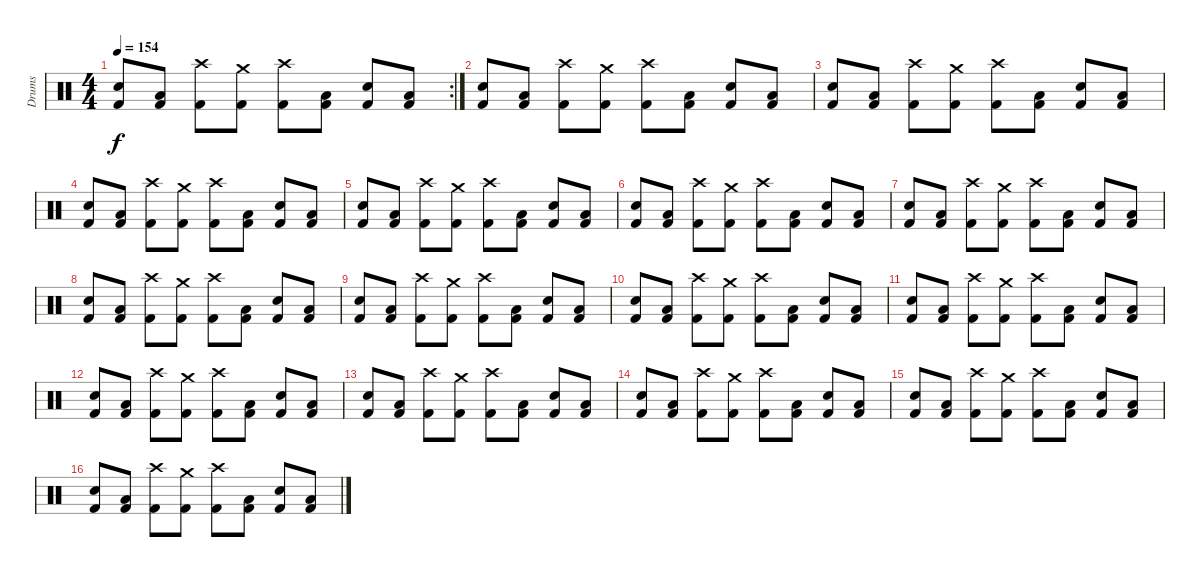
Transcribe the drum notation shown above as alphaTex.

\track ("Drums" "Drums") {instrument percussion}
\staff {score}
\articulation defaults
\rc 2
\ts (4 4)
\tempo 154
\clef neutral
\ks c
("Kick (hit) 2" "Snare (hit) 2").8{dy f} ("Kick (hit) 2" "Low Tom (hit)").8 ("Kick (hit) 2" "Crash high (hit)").8 ("Kick (hit) 2" "Crash medium (hit)").8 ("Kick (hit) 2" "Crash high (hit)").8 ("Kick (hit) 2" "Low Tom (hit)").8 ("Kick (hit) 2" "Snare (hit) 2").8 ("Kick (hit) 2" "Low Tom (hit)").8 |
("Kick (hit) 2" "Snare (hit) 2").8 ("Kick (hit) 2" "Low Tom (hit)").8 ("Kick (hit) 2" "Crash high (hit)").8 ("Kick (hit) 2" "Crash medium (hit)").8 ("Kick (hit) 2" "Crash high (hit)").8 ("Kick (hit) 2" "Low Tom (hit)").8 ("Kick (hit) 2" "Snare (hit) 2").8 ("Kick (hit) 2" "Low Tom (hit)").8 |
("Kick (hit) 2" "Snare (hit) 2").8 ("Kick (hit) 2" "Low Tom (hit)").8 ("Kick (hit) 2" "Crash high (hit)").8 ("Kick (hit) 2" "Crash medium (hit)").8 ("Kick (hit) 2" "Crash high (hit)").8 ("Kick (hit) 2" "Low Tom (hit)").8 ("Kick (hit) 2" "Snare (hit) 2").8 ("Kick (hit) 2" "Low Tom (hit)").8 |
("Kick (hit) 2" "Snare (hit) 2").8 ("Kick (hit) 2" "Low Tom (hit)").8 ("Kick (hit) 2" "Crash high (hit)").8 ("Kick (hit) 2" "Crash medium (hit)").8 ("Kick (hit) 2" "Crash high (hit)").8 ("Kick (hit) 2" "Low Tom (hit)").8 ("Kick (hit) 2" "Snare (hit) 2").8 ("Kick (hit) 2" "Low Tom (hit)").8 |
("Kick (hit) 2" "Snare (hit) 2").8 ("Kick (hit) 2" "Low Tom (hit)").8 ("Kick (hit) 2" "Crash high (hit)").8 ("Kick (hit) 2" "Crash medium (hit)").8 ("Kick (hit) 2" "Crash high (hit)").8 ("Kick (hit) 2" "Low Tom (hit)").8 ("Kick (hit) 2" "Snare (hit) 2").8 ("Kick (hit) 2" "Low Tom (hit)").8 |
("Kick (hit) 2" "Snare (hit) 2").8 ("Kick (hit) 2" "Low Tom (hit)").8 ("Kick (hit) 2" "Crash high (hit)").8 ("Kick (hit) 2" "Crash medium (hit)").8 ("Kick (hit) 2" "Crash high (hit)").8 ("Kick (hit) 2" "Low Tom (hit)").8 ("Kick (hit) 2" "Snare (hit) 2").8 ("Kick (hit) 2" "Low Tom (hit)").8 |
("Kick (hit) 2" "Snare (hit) 2").8 ("Kick (hit) 2" "Low Tom (hit)").8 ("Kick (hit) 2" "Crash high (hit)").8 ("Kick (hit) 2" "Crash medium (hit)").8 ("Kick (hit) 2" "Crash high (hit)").8 ("Kick (hit) 2" "Low Tom (hit)").8 ("Kick (hit) 2" "Snare (hit) 2").8 ("Kick (hit) 2" "Low Tom (hit)").8 |
("Kick (hit) 2" "Snare (hit) 2").8 ("Kick (hit) 2" "Low Tom (hit)").8 ("Kick (hit) 2" "Crash high (hit)").8 ("Kick (hit) 2" "Crash medium (hit)").8 ("Kick (hit) 2" "Crash high (hit)").8 ("Kick (hit) 2" "Low Tom (hit)").8 ("Kick (hit) 2" "Snare (hit) 2").8 ("Kick (hit) 2" "Low Tom (hit)").8 |
("Kick (hit) 2" "Snare (hit) 2").8 ("Kick (hit) 2" "Low Tom (hit)").8 ("Kick (hit) 2" "Crash high (hit)").8 ("Kick (hit) 2" "Crash medium (hit)").8 ("Kick (hit) 2" "Crash high (hit)").8 ("Kick (hit) 2" "Low Tom (hit)").8 ("Kick (hit) 2" "Snare (hit) 2").8 ("Kick (hit) 2" "Low Tom (hit)").8 |
("Kick (hit) 2" "Snare (hit) 2").8 ("Kick (hit) 2" "Low Tom (hit)").8 ("Kick (hit) 2" "Crash high (hit)").8 ("Kick (hit) 2" "Crash medium (hit)").8 ("Kick (hit) 2" "Crash high (hit)").8 ("Kick (hit) 2" "Low Tom (hit)").8 ("Kick (hit) 2" "Snare (hit) 2").8 ("Kick (hit) 2" "Low Tom (hit)").8 |
("Kick (hit) 2" "Snare (hit) 2").8 ("Kick (hit) 2" "Low Tom (hit)").8 ("Kick (hit) 2" "Crash high (hit)").8 ("Kick (hit) 2" "Crash medium (hit)").8 ("Kick (hit) 2" "Crash high (hit)").8 ("Kick (hit) 2" "Low Tom (hit)").8 ("Kick (hit) 2" "Snare (hit) 2").8 ("Kick (hit) 2" "Low Tom (hit)").8 |
("Kick (hit) 2" "Snare (hit) 2").8 ("Kick (hit) 2" "Low Tom (hit)").8 ("Kick (hit) 2" "Crash high (hit)").8 ("Kick (hit) 2" "Crash medium (hit)").8 ("Kick (hit) 2" "Crash high (hit)").8 ("Kick (hit) 2" "Low Tom (hit)").8 ("Kick (hit) 2" "Snare (hit) 2").8 ("Kick (hit) 2" "Low Tom (hit)").8 |
("Kick (hit) 2" "Snare (hit) 2").8 ("Kick (hit) 2" "Low Tom (hit)").8 ("Kick (hit) 2" "Crash high (hit)").8 ("Kick (hit) 2" "Crash medium (hit)").8 ("Kick (hit) 2" "Crash high (hit)").8 ("Kick (hit) 2" "Low Tom (hit)").8 ("Kick (hit) 2" "Snare (hit) 2").8 ("Kick (hit) 2" "Low Tom (hit)").8 |
("Kick (hit) 2" "Snare (hit) 2").8 ("Kick (hit) 2" "Low Tom (hit)").8 ("Kick (hit) 2" "Crash high (hit)").8 ("Kick (hit) 2" "Crash medium (hit)").8 ("Kick (hit) 2" "Crash high (hit)").8 ("Kick (hit) 2" "Low Tom (hit)").8 ("Kick (hit) 2" "Snare (hit) 2").8 ("Kick (hit) 2" "Low Tom (hit)").8 |
("Kick (hit) 2" "Snare (hit) 2").8 ("Kick (hit) 2" "Low Tom (hit)").8 ("Kick (hit) 2" "Crash high (hit)").8 ("Kick (hit) 2" "Crash medium (hit)").8 ("Kick (hit) 2" "Crash high (hit)").8 ("Kick (hit) 2" "Low Tom (hit)").8 ("Kick (hit) 2" "Snare (hit) 2").8 ("Kick (hit) 2" "Low Tom (hit)").8 |
("Kick (hit) 2" "Snare (hit) 2").8 ("Kick (hit) 2" "Low Tom (hit)").8 ("Kick (hit) 2" "Crash high (hit)").8 ("Kick (hit) 2" "Crash medium (hit)").8 ("Kick (hit) 2" "Crash high (hit)").8 ("Kick (hit) 2" "Low Tom (hit)").8 ("Kick (hit) 2" "Snare (hit) 2").8 ("Kick (hit) 2" "Low Tom (hit)").8
